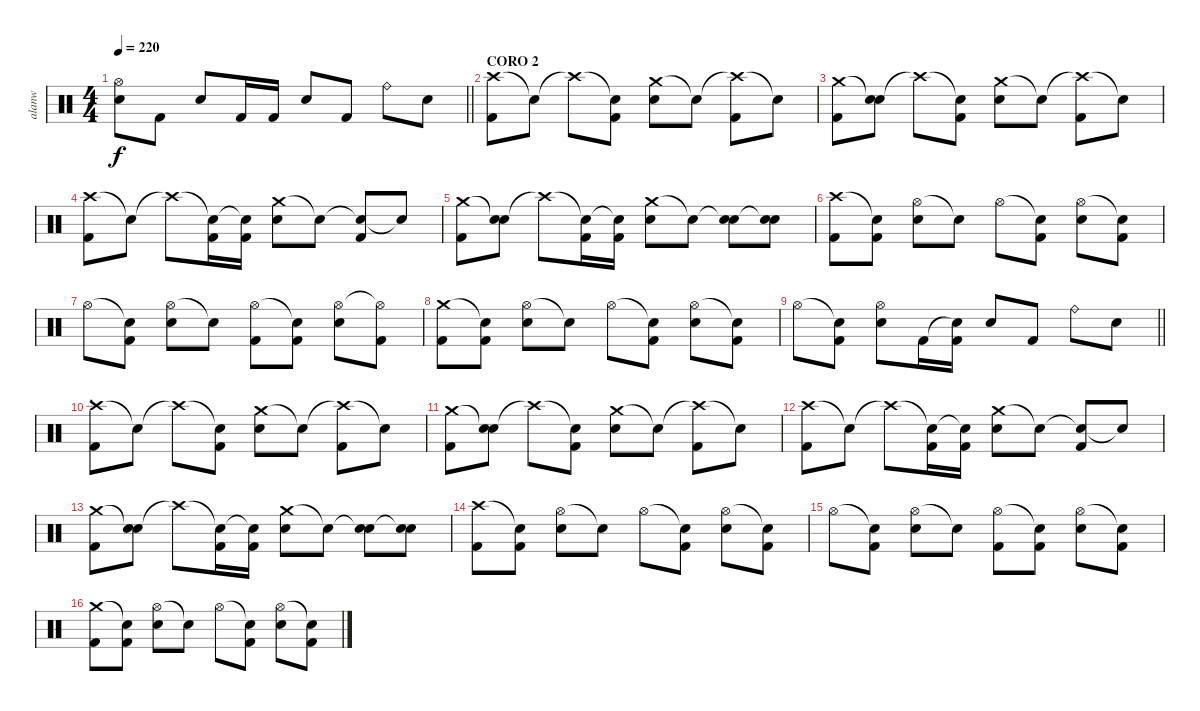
\track ("alanw" "alanw") {instrument percussion}
\staff {score}
\articulation defaults
\ts (4 4)
\tempo 220
\clef neutral
\barLineRight lightlight
\ks c
("Hi-Hat (open)" "Electric Snare (hit)").8{dy f} "Kick (hit) 2".8 "Electric Snare (hit)".8 "Kick (hit) 2".16 "Kick (hit) 2".16 "Electric Snare (hit)".8 "Kick (hit) 2".8 "Ride (bell)".8 "Electric Snare (hit)".8 |
\section ("" "CORO 2")
("Crash high (hit)" "Kick (hit) 2").8 "Snare (hit)"{t}.8 "Crash high (hit)"{t}.8 ("Snare (hit)"{t} "Kick (hit) 2").8 ("Crash medium (hit)" "Electric Snare (hit)").8 "Snare (hit)"{t}.8 ("Crash high (hit)"{t} "Kick (hit) 2").8 "Snare (hit)"{t}.8 |
("Crash medium (hit)" "Kick (hit) 2").8 ("Snare (hit)"{t} "Electric Snare (hit)").8 "Crash high (hit)"{t}.8 ("Snare (hit)"{t} "Kick (hit) 2").8 ("Crash medium (hit)" "Electric Snare (hit)").8 "Snare (hit)"{t}.8 ("Crash high (hit)"{t} "Kick (hit) 2").8 "Snare (hit)"{t}.8 |
("Crash high (hit)" "Kick (hit) 2").8 "Snare (hit)"{t}.8 "Crash high (hit)"{t}.8 ("Snare (hit)"{t} "Kick (hit) 2").16 ("Snare (hit)"{t} "Kick (hit) 2").16 ("Crash medium (hit)" "Electric Snare (hit)").8 "Snare (hit)"{t}.8 ("Snare (hit)"{t} "Kick (hit) 2").8 "Snare (hit)"{t}.8 |
("Crash medium (hit)" "Kick (hit) 2").8 ("Snare (hit)"{t} "Electric Snare (hit)").8 "Crash high (hit)"{t}.8 ("Snare (hit)"{t} "Kick (hit) 2").16 ("Snare (hit)"{t} "Kick (hit) 2").16 ("Crash medium (hit)" "Electric Snare (hit)").8 "Snare (hit)"{t}.8 ("Snare (hit)"{t} "Electric Snare (hit)").8 ("Snare (hit)"{t} "Electric Snare (hit)").8 |
("Crash high (hit)" "Kick (hit) 2").8 ("Snare (hit)"{t} "Kick (hit) 2").8 ("Hi-Hat (open)" "Electric Snare (hit)").8 "Snare (hit)"{t}.8 "Hi-Hat (open)".8 ("Snare (hit)"{t} "Kick (hit) 2").8 ("Hi-Hat (open)" "Electric Snare (hit)").8 ("Snare (hit)"{t} "Kick (hit) 2").8 |
"Hi-Hat (open)".8 ("Snare (hit)"{t} "Kick (hit) 2").8 ("Hi-Hat (open)" "Electric Snare (hit)").8 "Snare (hit)"{t}.8 ("Hi-Hat (open)" "Kick (hit) 2").8 ("Snare (hit)"{t} "Kick (hit) 2").8 ("Hi-Hat (open)" "Electric Snare (hit)").8 ("Hi-Hat (open)"{t} "Kick (hit) 2").8 |
("Crash medium (hit)" "Kick (hit) 2").8 ("Snare (hit)"{t} "Kick (hit) 2").8 ("Hi-Hat (open)" "Electric Snare (hit)").8 "Snare (hit)"{t}.8 "Hi-Hat (open)".8 ("Snare (hit)"{t} "Kick (hit) 2").8 ("Hi-Hat (open)" "Electric Snare (hit)").8 ("Snare (hit)"{t} "Kick (hit) 2").8 |
\barLineRight lightlight "Hi-Hat (open)".8
("Snare (hit)"{t} "Kick (hit) 2").8 ("Hi-Hat (open)" "Electric Snare (hit)").8 "Kick (hit) 2".16 ("Snare (hit)"{t} "Kick (hit) 2").16 "Electric Snare (hit)".8 "Kick (hit) 2".8 "Ride (bell)".8 "Electric Snare (hit)".8 |
\section ("" ".")
("Crash high (hit)" "Kick (hit) 2").8 "Snare (hit)"{t}.8 "Crash high (hit)"{t}.8 ("Snare (hit)"{t} "Kick (hit) 2").8 ("Crash medium (hit)" "Electric Snare (hit)").8 "Snare (hit)"{t}.8 ("Crash high (hit)"{t} "Kick (hit) 2").8 "Snare (hit)"{t}.8 |
("Crash medium (hit)" "Kick (hit) 2").8 ("Snare (hit)"{t} "Electric Snare (hit)").8 "Crash high (hit)"{t}.8 ("Snare (hit)"{t} "Kick (hit) 2").8 ("Crash medium (hit)" "Electric Snare (hit)").8 "Snare (hit)"{t}.8 ("Crash high (hit)"{t} "Kick (hit) 2").8 "Snare (hit)"{t}.8 |
("Crash high (hit)" "Kick (hit) 2").8 "Snare (hit)"{t}.8 "Crash high (hit)"{t}.8 ("Snare (hit)"{t} "Kick (hit) 2").16 ("Snare (hit)"{t} "Kick (hit) 2").16 ("Crash medium (hit)" "Electric Snare (hit)").8 "Snare (hit)"{t}.8 ("Snare (hit)"{t} "Kick (hit) 2").8 "Snare (hit)"{t}.8 |
("Crash medium (hit)" "Kick (hit) 2").8 ("Snare (hit)"{t} "Electric Snare (hit)").8 "Crash high (hit)"{t}.8 ("Snare (hit)"{t} "Kick (hit) 2").16 ("Snare (hit)"{t} "Kick (hit) 2").16 ("Crash medium (hit)" "Electric Snare (hit)").8 "Snare (hit)"{t}.8 ("Snare (hit)"{t} "Electric Snare (hit)").8 ("Snare (hit)"{t} "Electric Snare (hit)").8 |
("Crash high (hit)" "Kick (hit) 2").8 ("Snare (hit)"{t} "Kick (hit) 2").8 ("Hi-Hat (open)" "Electric Snare (hit)").8 "Snare (hit)"{t}.8 "Hi-Hat (open)".8 ("Snare (hit)"{t} "Kick (hit) 2").8 ("Hi-Hat (open)" "Electric Snare (hit)").8 ("Snare (hit)"{t} "Kick (hit) 2").8 |
"Hi-Hat (open)".8 ("Snare (hit)"{t} "Kick (hit) 2").8 ("Hi-Hat (open)" "Electric Snare (hit)").8 "Snare (hit)"{t}.8 ("Hi-Hat (open)" "Kick (hit) 2").8 ("Snare (hit)"{t} "Kick (hit) 2").8 ("Hi-Hat (open)" "Electric Snare (hit)").8 ("Snare (hit)"{t} "Kick (hit) 2").8 |
("Crash medium (hit)" "Kick (hit) 2").8 ("Snare (hit)"{t} "Kick (hit) 2").8 ("Hi-Hat (open)" "Electric Snare (hit)").8 "Snare (hit)"{t}.8 "Hi-Hat (open)".8 ("Snare (hit)"{t} "Kick (hit) 2").8 ("Hi-Hat (open)" "Electric Snare (hit)").8 ("Snare (hit)"{t} "Kick (hit) 2").8
